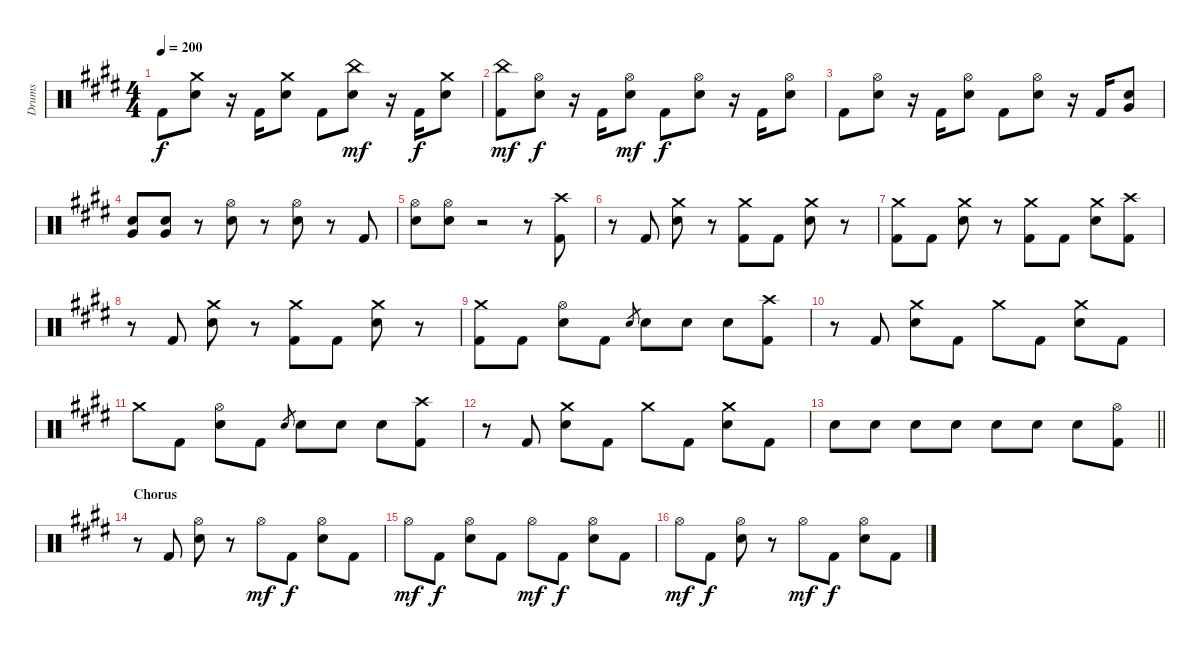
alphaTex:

\track ("Drums" "Drums") {instrument percussion}
\staff {score}
\articulation defaults
\ts (4 4)
\tempo 200
\clef neutral
\ks c#minor "Kick (hit) 2".8{dy f}
("Crash medium (hit)" "Electric Snare (hit)").8 r.16 "Kick (hit) 2".16 ("Crash medium (hit)" "Electric Snare (hit)").8 "Kick (hit) 2".8 ("China (hit)" "Electric Snare (hit)").8{dy mf} r.16 "Kick (hit) 2".16{dy f} ("Crash medium (hit)" "Electric Snare (hit)").8 |
("China (hit)" "Kick (hit) 2").8{dy mf} ("Hi-Hat (open)" "Electric Snare (hit)").8{dy f} r.16 "Kick (hit) 2".16 ("Hi-Hat (open)" "Electric Snare (hit)").8{dy mf} "Kick (hit) 2".8{dy f} ("Hi-Hat (open)" "Electric Snare (hit)").8 r.16 "Kick (hit) 2".16 ("Hi-Hat (open)" "Electric Snare (hit)").8 |
"Kick (hit) 2".8 ("Hi-Hat (open)" "Electric Snare (hit)").8 r.16 "Kick (hit) 2".16 ("Hi-Hat (open)" "Electric Snare (hit)").8 "Kick (hit) 2".8 ("Hi-Hat (open)" "Electric Snare (hit)").8 r.16 "Kick (hit) 2".16 ("Electric Snare (hit)" "Very Low Tom (hit)").8 |
("Electric Snare (hit)" "Very Low Tom (hit)").8 ("Electric Snare (hit)" "Very Low Tom (hit)").8 r.8 ("Hi-Hat (open)" "Electric Snare (hit)").8 r.8 ("Hi-Hat (open)" "Electric Snare (hit)").8 r.8 "Kick (hit) 2".8 |
("Hi-Hat (open)" "Electric Snare (hit)").8 ("Hi-Hat (open)" "Electric Snare (hit)").8 r.2 r.8 ("Crash high (hit)" "Kick (hit) 2").8 |
r.8 "Kick (hit) 2".8 ("Crash medium (hit)" "Electric Snare (hit)").8 r.8 ("Crash medium (hit)" "Kick (hit) 2").8 "Kick (hit) 2".8 ("Crash medium (hit)" "Electric Snare (hit)").8 r.8 |
("Crash medium (hit)" "Kick (hit) 2").8 "Kick (hit) 2".8 ("Crash medium (hit)" "Electric Snare (hit)").8 r.8 ("Crash medium (hit)" "Kick (hit) 2").8 "Kick (hit) 2".8 ("Crash medium (hit)" "Electric Snare (hit)").8 ("Crash high (hit)" "Kick (hit) 2").8 |
r.8 "Kick (hit) 2".8 ("Crash medium (hit)" "Electric Snare (hit)").8 r.8 ("Crash medium (hit)" "Kick (hit) 2").8 "Kick (hit) 2".8 ("Crash medium (hit)" "Electric Snare (hit)").8 r.8 |
("Crash medium (hit)" "Kick (hit) 2").8 "Kick (hit) 2".8 ("Hi-Hat (open)" "Electric Snare (hit)").8 "Kick (hit) 2".8 "Electric Snare (hit)".8{gr} "Electric Snare (hit)".8 "Electric Snare (hit)".8 "Electric Snare (hit)".8 ("Crash high (hit)" "Kick (hit) 2").8 |
r.8 "Kick (hit) 2".8 ("Crash medium (hit)" "Electric Snare (hit)").8 "Kick (hit) 2".8 "Crash medium (hit)".8 "Kick (hit) 2".8 ("Crash medium (hit)" "Electric Snare (hit)").8 "Kick (hit) 2".8 |
"Crash medium (hit)".8 "Kick (hit) 2".8 ("Hi-Hat (open)" "Electric Snare (hit)").8 "Kick (hit) 2".8 "Electric Snare (hit)".8{gr} "Electric Snare (hit)".8 "Electric Snare (hit)".8 "Electric Snare (hit)".8 ("Crash high (hit)" "Kick (hit) 2").8 |
r.8 "Kick (hit) 2".8 ("Crash medium (hit)" "Electric Snare (hit)").8 "Kick (hit) 2".8 "Crash medium (hit)".8 "Kick (hit) 2".8 ("Crash medium (hit)" "Electric Snare (hit)").8 "Kick (hit) 2".8 |
\barLineRight lightlight "Electric Snare (hit)".8 "Electric Snare (hit)".8 "Electric Snare (hit)".8 "Electric Snare (hit)".8 "Electric Snare (hit)".8 "Electric Snare (hit)".8 "Electric Snare (hit)".8
("Hi-Hat (open)" "Kick (hit) 2").8 |
\section ("" "Chorus")
r.8 "Kick (hit) 2".8 ("Hi-Hat (open)" "Electric Snare (hit)").8 r.8 "Hi-Hat (open)".8{dy mf} "Kick (hit) 2".8{dy f} ("Hi-Hat (open)" "Electric Snare (hit)").8 "Kick (hit) 2".8 |
"Hi-Hat (open)".8{dy mf} "Kick (hit) 2".8{dy f} ("Hi-Hat (open)" "Electric Snare (hit)").8 "Kick (hit) 2".8 "Hi-Hat (open)".8{dy mf} "Kick (hit) 2".8{dy f} ("Hi-Hat (open)" "Electric Snare (hit)").8 "Kick (hit) 2".8 |
"Hi-Hat (open)".8{dy mf} "Kick (hit) 2".8{dy f} ("Hi-Hat (open)" "Electric Snare (hit)").8 r.8 "Hi-Hat (open)".8{dy mf} "Kick (hit) 2".8{dy f} ("Hi-Hat (open)" "Electric Snare (hit)").8 "Kick (hit) 2".8
